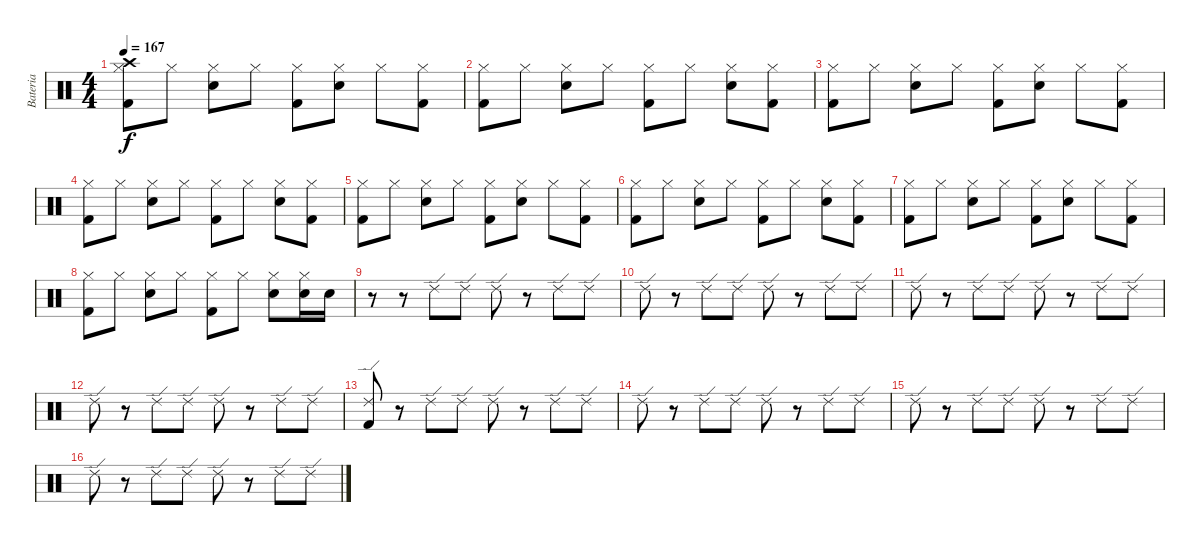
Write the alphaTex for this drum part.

\track ("Bateria" "Bateria") {instrument percussion}
\staff {score}
\articulation defaults
\ts (4 4)
\tempo 167
\clef neutral
\ks c
("Kick (hit) 2" "Hi-Hat (closed)" "Crash high (hit)").8{dy f} "Hi-Hat (closed)".8 ("Snare (hit) 2" "Hi-Hat (closed)").8 "Hi-Hat (closed)".8 ("Kick (hit) 2" "Hi-Hat (closed)").8 ("Snare (hit) 2" "Hi-Hat (closed)").8 "Hi-Hat (closed)".8 ("Kick (hit) 2" "Hi-Hat (closed)").8 |
("Kick (hit) 2" "Hi-Hat (closed)").8 "Hi-Hat (closed)".8 ("Snare (hit) 2" "Hi-Hat (closed)").8 "Hi-Hat (closed)".8 ("Kick (hit) 2" "Hi-Hat (closed)").8 "Hi-Hat (closed)".8 ("Snare (hit) 2" "Hi-Hat (closed)").8 ("Kick (hit) 2" "Hi-Hat (closed)").8 |
("Kick (hit) 2" "Hi-Hat (closed)").8 "Hi-Hat (closed)".8 ("Snare (hit) 2" "Hi-Hat (closed)").8 "Hi-Hat (closed)".8 ("Kick (hit) 2" "Hi-Hat (closed)").8 ("Snare (hit) 2" "Hi-Hat (closed)").8 "Hi-Hat (closed)".8 ("Kick (hit) 2" "Hi-Hat (closed)").8 |
("Kick (hit) 2" "Hi-Hat (closed)").8 "Hi-Hat (closed)".8 ("Snare (hit) 2" "Hi-Hat (closed)").8 "Hi-Hat (closed)".8 ("Kick (hit) 2" "Hi-Hat (closed)").8 "Hi-Hat (closed)".8 ("Snare (hit) 2" "Hi-Hat (closed)").8 ("Kick (hit) 2" "Hi-Hat (closed)").8 |
("Kick (hit) 2" "Hi-Hat (closed)").8 "Hi-Hat (closed)".8 ("Snare (hit) 2" "Hi-Hat (closed)").8 "Hi-Hat (closed)".8 ("Kick (hit) 2" "Hi-Hat (closed)").8 ("Snare (hit) 2" "Hi-Hat (closed)").8 "Hi-Hat (closed)".8 ("Kick (hit) 2" "Hi-Hat (closed)").8 |
("Kick (hit) 2" "Hi-Hat (closed)").8 "Hi-Hat (closed)".8 ("Snare (hit) 2" "Hi-Hat (closed)").8 "Hi-Hat (closed)".8 ("Kick (hit) 2" "Hi-Hat (closed)").8 "Hi-Hat (closed)".8 ("Snare (hit) 2" "Hi-Hat (closed)").8 ("Kick (hit) 2" "Hi-Hat (closed)").8 |
("Kick (hit) 2" "Hi-Hat (closed)").8 "Hi-Hat (closed)".8 ("Snare (hit) 2" "Hi-Hat (closed)").8 "Hi-Hat (closed)".8 ("Kick (hit) 2" "Hi-Hat (closed)").8 ("Snare (hit) 2" "Hi-Hat (closed)").8 "Hi-Hat (closed)".8 ("Kick (hit) 2" "Hi-Hat (closed)").8 |
("Kick (hit) 2" "Hi-Hat (closed)").8 "Hi-Hat (closed)".8 ("Snare (hit) 2" "Hi-Hat (closed)").8 "Hi-Hat (closed)".8 ("Kick (hit) 2" "Hi-Hat (closed)").8 "Hi-Hat (closed)".8 ("Snare (hit) 2" "Hi-Hat (closed)").8 ("Snare (hit) 2" "Hi-Hat (closed)").16 "Snare (hit) 2".16 |
r.8 r.8 "Ride (edge) 2".8 "Ride (edge) 2".8 "Ride (edge) 2".8 r.8 "Ride (edge) 2".8 "Ride (edge) 2".8 |
"Ride (edge) 2".8 r.8 "Ride (edge) 2".8 "Ride (edge) 2".8 "Ride (edge) 2".8 r.8 "Ride (edge) 2".8 "Ride (edge) 2".8 |
"Ride (edge) 2".8 r.8 "Ride (edge) 2".8 "Ride (edge) 2".8 "Ride (edge) 2".8 r.8 "Ride (edge) 2".8 "Ride (edge) 2".8 |
"Ride (edge) 2".8 r.8 "Ride (edge) 2".8 "Ride (edge) 2".8 "Ride (edge) 2".8 r.8 "Ride (edge) 2".8 "Ride (edge) 2".8 |
("Ride (edge) 2" "Kick (hit) 2").8 r.8 "Ride (edge) 2".8 "Ride (edge) 2".8 "Ride (edge) 2".8 r.8 "Ride (edge) 2".8 "Ride (edge) 2".8 |
"Ride (edge) 2".8 r.8 "Ride (edge) 2".8 "Ride (edge) 2".8 "Ride (edge) 2".8 r.8 "Ride (edge) 2".8 "Ride (edge) 2".8 |
"Ride (edge) 2".8 r.8 "Ride (edge) 2".8 "Ride (edge) 2".8 "Ride (edge) 2".8 r.8 "Ride (edge) 2".8 "Ride (edge) 2".8 |
"Ride (edge) 2".8 r.8 "Ride (edge) 2".8 "Ride (edge) 2".8 "Ride (edge) 2".8 r.8 "Ride (edge) 2".8 "Ride (edge) 2".8
